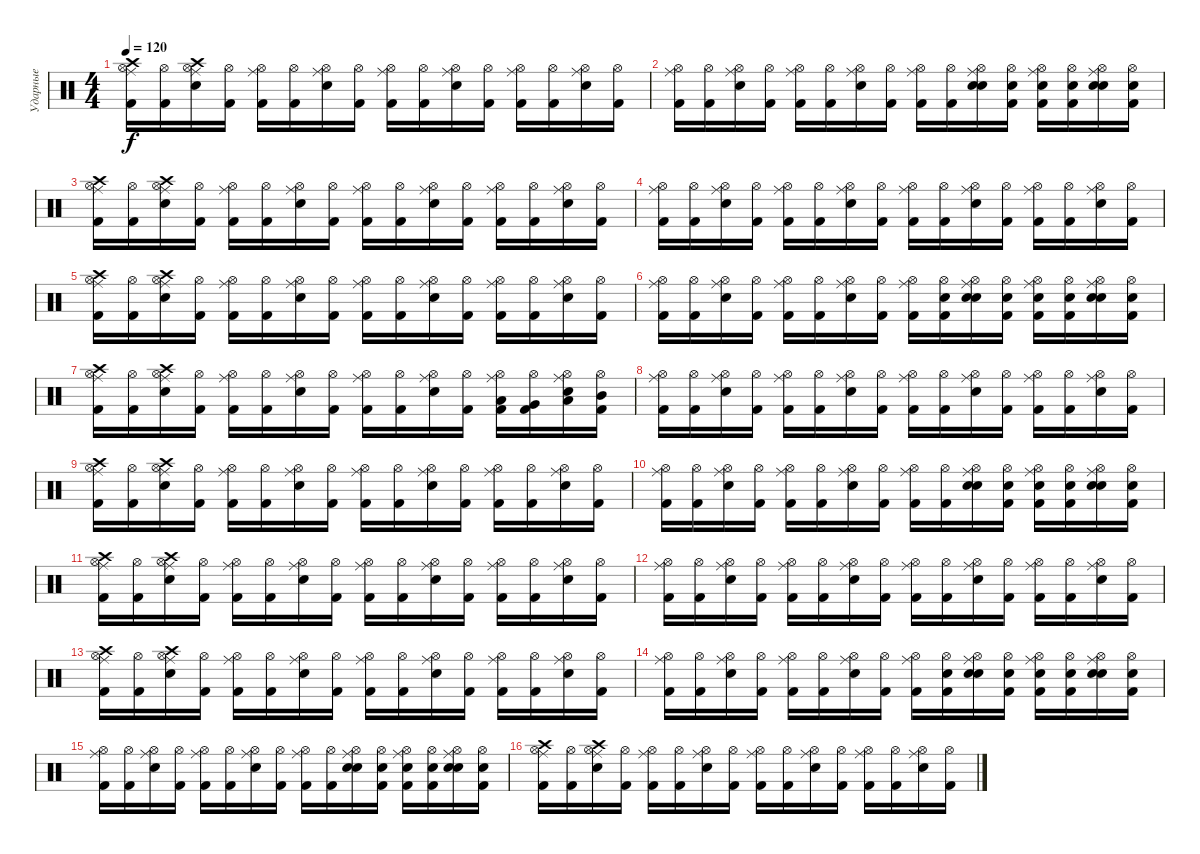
\track ("Ударные" "Ударные") {instrument percussion}
\staff {score}
\articulation defaults
\ts (4 4)
\tempo 120
\clef neutral
\ks c
("Hi-Hat (open)" "Ride (middle)" "Kick (hit) 2" "Crash high (hit)").16{dy f} ("Hi-Hat (open)" "Kick (hit) 2").16 ("Hi-Hat (open)" "Ride (middle)" "Snare (hit) 2" "Crash high (hit)").16 ("Hi-Hat (open)" "Kick (hit) 2").16 ("Hi-Hat (open)" "Ride (middle)" "Kick (hit) 2").16 ("Hi-Hat (open)" "Kick (hit) 2").16 ("Hi-Hat (open)" "Ride (middle)" "Snare (hit) 2").16 ("Hi-Hat (open)" "Kick (hit) 2").16 ("Hi-Hat (open)" "Ride (middle)" "Kick (hit) 2").16 ("Hi-Hat (open)" "Kick (hit) 2").16 ("Hi-Hat (open)" "Ride (middle)" "Snare (hit) 2").16 ("Hi-Hat (open)" "Kick (hit) 2").16 ("Hi-Hat (open)" "Ride (middle)" "Kick (hit) 2").16 ("Hi-Hat (open)" "Kick (hit) 2").16 ("Hi-Hat (open)" "Ride (middle)" "Snare (hit) 2").16 ("Hi-Hat (open)" "Kick (hit) 2").16 |
("Hi-Hat (open)" "Ride (middle)" "Kick (hit) 2").16 ("Hi-Hat (open)" "Kick (hit) 2").16 ("Hi-Hat (open)" "Ride (middle)" "Snare (hit) 2").16 ("Hi-Hat (open)" "Kick (hit) 2").16 ("Hi-Hat (open)" "Ride (middle)" "Kick (hit) 2").16 ("Hi-Hat (open)" "Kick (hit) 2").16 ("Hi-Hat (open)" "Ride (middle)" "Snare (hit) 2").16 ("Hi-Hat (open)" "Kick (hit) 2").16 ("Hi-Hat (open)" "Ride (middle)" "Kick (hit) 2").16 ("Hi-Hat (open)" "Kick (hit) 2").16 ("Hi-Hat (open)" "Ride (middle)" "Snare (hit) 2" "Electric Snare (hit)").16 ("Hi-Hat (open)" "Kick (hit) 2" "Electric Snare (hit)").16 ("Hi-Hat (open)" "Ride (middle)" "Kick (hit) 2" "Electric Snare (hit)").16 ("Hi-Hat (open)" "Kick (hit) 2" "Electric Snare (hit)").16 ("Hi-Hat (open)" "Ride (middle)" "Snare (hit) 2" "Electric Snare (hit)").16 ("Hi-Hat (open)" "Kick (hit) 2" "Electric Snare (hit)").16 |
("Hi-Hat (open)" "Ride (middle)" "Kick (hit) 2" "Crash high (hit)").16 ("Hi-Hat (open)" "Kick (hit) 2").16 ("Hi-Hat (open)" "Ride (middle)" "Snare (hit) 2" "Crash high (hit)").16 ("Hi-Hat (open)" "Kick (hit) 2").16 ("Hi-Hat (open)" "Ride (middle)" "Kick (hit) 2").16 ("Hi-Hat (open)" "Kick (hit) 2").16 ("Hi-Hat (open)" "Ride (middle)" "Snare (hit) 2").16 ("Hi-Hat (open)" "Kick (hit) 2").16 ("Hi-Hat (open)" "Ride (middle)" "Kick (hit) 2").16 ("Hi-Hat (open)" "Kick (hit) 2").16 ("Hi-Hat (open)" "Ride (middle)" "Snare (hit) 2").16 ("Hi-Hat (open)" "Kick (hit) 2").16 ("Hi-Hat (open)" "Ride (middle)" "Kick (hit) 2").16 ("Hi-Hat (open)" "Kick (hit) 2").16 ("Hi-Hat (open)" "Ride (middle)" "Snare (hit) 2").16 ("Hi-Hat (open)" "Kick (hit) 2").16 |
("Hi-Hat (open)" "Ride (middle)" "Kick (hit) 2").16 ("Hi-Hat (open)" "Kick (hit) 2").16 ("Hi-Hat (open)" "Ride (middle)" "Snare (hit) 2").16 ("Hi-Hat (open)" "Kick (hit) 2").16 ("Hi-Hat (open)" "Ride (middle)" "Kick (hit) 2").16 ("Hi-Hat (open)" "Kick (hit) 2").16 ("Hi-Hat (open)" "Ride (middle)" "Snare (hit) 2").16 ("Hi-Hat (open)" "Kick (hit) 2").16 ("Hi-Hat (open)" "Ride (middle)" "Kick (hit) 2").16 ("Hi-Hat (open)" "Kick (hit) 2").16 ("Hi-Hat (open)" "Ride (middle)" "Snare (hit) 2").16 ("Hi-Hat (open)" "Kick (hit) 2").16 ("Hi-Hat (open)" "Ride (middle)" "Kick (hit) 2").16 ("Hi-Hat (open)" "Kick (hit) 2").16 ("Hi-Hat (open)" "Ride (middle)" "Snare (hit) 2").16 ("Hi-Hat (open)" "Kick (hit) 2").16 |
("Hi-Hat (open)" "Ride (middle)" "Kick (hit) 2" "Crash high (hit)").16 ("Hi-Hat (open)" "Kick (hit) 2").16 ("Hi-Hat (open)" "Ride (middle)" "Snare (hit) 2" "Crash high (hit)").16 ("Hi-Hat (open)" "Kick (hit) 2").16 ("Hi-Hat (open)" "Ride (middle)" "Kick (hit) 2").16 ("Hi-Hat (open)" "Kick (hit) 2").16 ("Hi-Hat (open)" "Ride (middle)" "Snare (hit) 2").16 ("Hi-Hat (open)" "Kick (hit) 2").16 ("Hi-Hat (open)" "Ride (middle)" "Kick (hit) 2").16 ("Hi-Hat (open)" "Kick (hit) 2").16 ("Hi-Hat (open)" "Ride (middle)" "Snare (hit) 2").16 ("Hi-Hat (open)" "Kick (hit) 2").16 ("Hi-Hat (open)" "Ride (middle)" "Kick (hit) 2").16 ("Hi-Hat (open)" "Kick (hit) 2").16 ("Hi-Hat (open)" "Ride (middle)" "Snare (hit) 2").16 ("Hi-Hat (open)" "Kick (hit) 2").16 |
("Hi-Hat (open)" "Ride (middle)" "Kick (hit) 2").16 ("Hi-Hat (open)" "Kick (hit) 2").16 ("Hi-Hat (open)" "Ride (middle)" "Snare (hit) 2").16 ("Hi-Hat (open)" "Kick (hit) 2").16 ("Hi-Hat (open)" "Ride (middle)" "Kick (hit) 2").16 ("Hi-Hat (open)" "Kick (hit) 2").16 ("Hi-Hat (open)" "Ride (middle)" "Snare (hit) 2").16 ("Hi-Hat (open)" "Kick (hit) 2").16 ("Hi-Hat (open)" "Ride (middle)" "Kick (hit) 2").16 ("Hi-Hat (open)" "Kick (hit) 2" "Electric Snare (hit)").16 ("Hi-Hat (open)" "Ride (middle)" "Snare (hit) 2" "Electric Snare (hit)").16 ("Hi-Hat (open)" "Kick (hit) 2" "Electric Snare (hit)").16 ("Hi-Hat (open)" "Ride (middle)" "Kick (hit) 2" "Electric Snare (hit)").16 ("Hi-Hat (open)" "Kick (hit) 2" "Electric Snare (hit)").16 ("Hi-Hat (open)" "Ride (middle)" "Snare (hit) 2" "Electric Snare (hit)").16 ("Hi-Hat (open)" "Kick (hit) 2" "Electric Snare (hit)").16 |
("Hi-Hat (open)" "Ride (middle)" "Kick (hit) 2" "Crash high (hit)").16 ("Hi-Hat (open)" "Kick (hit) 2").16 ("Hi-Hat (open)" "Ride (middle)" "Snare (hit) 2" "Crash high (hit)").16 ("Hi-Hat (open)" "Kick (hit) 2").16 ("Hi-Hat (open)" "Ride (middle)" "Kick (hit) 2").16 ("Hi-Hat (open)" "Kick (hit) 2").16 ("Hi-Hat (open)" "Ride (middle)" "Snare (hit) 2").16 ("Hi-Hat (open)" "Kick (hit) 2").16 ("Hi-Hat (open)" "Ride (middle)" "Kick (hit) 2").16 ("Hi-Hat (open)" "Kick (hit) 2").16 ("Hi-Hat (open)" "Ride (middle)" "Snare (hit) 2").16 ("Hi-Hat (open)" "Kick (hit) 2").16 ("Hi-Hat (open)" "Ride (middle)" "Kick (hit) 2" "Low Floor Tom (hit)").16 ("Hi-Hat (open)" "Kick (hit) 2" "Very Low Tom (hit)").16 ("Hi-Hat (open)" "Ride (middle)" "Snare (hit) 2" "Low Tom (hit)").16 ("Hi-Hat (open)" "Kick (hit) 2" "Mid Tom (hit)").16 |
("Hi-Hat (open)" "Ride (middle)" "Kick (hit) 2").16 ("Hi-Hat (open)" "Kick (hit) 2").16 ("Hi-Hat (open)" "Ride (middle)" "Snare (hit) 2").16 ("Hi-Hat (open)" "Kick (hit) 2").16 ("Hi-Hat (open)" "Ride (middle)" "Kick (hit) 2").16 ("Hi-Hat (open)" "Kick (hit) 2").16 ("Hi-Hat (open)" "Ride (middle)" "Snare (hit) 2").16 ("Hi-Hat (open)" "Kick (hit) 2").16 ("Hi-Hat (open)" "Ride (middle)" "Kick (hit) 2").16 ("Hi-Hat (open)" "Kick (hit) 2").16 ("Hi-Hat (open)" "Ride (middle)" "Snare (hit) 2").16 ("Hi-Hat (open)" "Kick (hit) 2").16 ("Hi-Hat (open)" "Ride (middle)" "Kick (hit) 2").16 ("Hi-Hat (open)" "Kick (hit) 2").16 ("Hi-Hat (open)" "Ride (middle)" "Snare (hit) 2").16 ("Hi-Hat (open)" "Kick (hit) 2").16 |
("Hi-Hat (open)" "Ride (middle)" "Kick (hit) 2" "Crash high (hit)").16 ("Hi-Hat (open)" "Kick (hit) 2").16 ("Hi-Hat (open)" "Ride (middle)" "Snare (hit) 2" "Crash high (hit)").16 ("Hi-Hat (open)" "Kick (hit) 2").16 ("Hi-Hat (open)" "Ride (middle)" "Kick (hit) 2").16 ("Hi-Hat (open)" "Kick (hit) 2").16 ("Hi-Hat (open)" "Ride (middle)" "Snare (hit) 2").16 ("Hi-Hat (open)" "Kick (hit) 2").16 ("Hi-Hat (open)" "Ride (middle)" "Kick (hit) 2").16 ("Hi-Hat (open)" "Kick (hit) 2").16 ("Hi-Hat (open)" "Ride (middle)" "Snare (hit) 2").16 ("Hi-Hat (open)" "Kick (hit) 2").16 ("Hi-Hat (open)" "Ride (middle)" "Kick (hit) 2").16 ("Hi-Hat (open)" "Kick (hit) 2").16 ("Hi-Hat (open)" "Ride (middle)" "Snare (hit) 2").16 ("Hi-Hat (open)" "Kick (hit) 2").16 |
("Hi-Hat (open)" "Ride (middle)" "Kick (hit) 2").16 ("Hi-Hat (open)" "Kick (hit) 2").16 ("Hi-Hat (open)" "Ride (middle)" "Snare (hit) 2").16 ("Hi-Hat (open)" "Kick (hit) 2").16 ("Hi-Hat (open)" "Ride (middle)" "Kick (hit) 2").16 ("Hi-Hat (open)" "Kick (hit) 2").16 ("Hi-Hat (open)" "Ride (middle)" "Snare (hit) 2").16 ("Hi-Hat (open)" "Kick (hit) 2").16 ("Hi-Hat (open)" "Ride (middle)" "Kick (hit) 2").16 ("Hi-Hat (open)" "Kick (hit) 2").16 ("Hi-Hat (open)" "Ride (middle)" "Snare (hit) 2" "Electric Snare (hit)").16 ("Hi-Hat (open)" "Kick (hit) 2" "Electric Snare (hit)").16 ("Hi-Hat (open)" "Ride (middle)" "Kick (hit) 2" "Electric Snare (hit)").16 ("Hi-Hat (open)" "Kick (hit) 2" "Electric Snare (hit)").16 ("Hi-Hat (open)" "Ride (middle)" "Snare (hit) 2" "Electric Snare (hit)").16 ("Hi-Hat (open)" "Kick (hit) 2" "Electric Snare (hit)").16 |
("Hi-Hat (open)" "Ride (middle)" "Kick (hit) 2" "Crash high (hit)").16 ("Hi-Hat (open)" "Kick (hit) 2").16 ("Hi-Hat (open)" "Ride (middle)" "Snare (hit) 2" "Crash high (hit)").16 ("Hi-Hat (open)" "Kick (hit) 2").16 ("Hi-Hat (open)" "Ride (middle)" "Kick (hit) 2").16 ("Hi-Hat (open)" "Kick (hit) 2").16 ("Hi-Hat (open)" "Ride (middle)" "Snare (hit) 2").16 ("Hi-Hat (open)" "Kick (hit) 2").16 ("Hi-Hat (open)" "Ride (middle)" "Kick (hit) 2").16 ("Hi-Hat (open)" "Kick (hit) 2").16 ("Hi-Hat (open)" "Ride (middle)" "Snare (hit) 2").16 ("Hi-Hat (open)" "Kick (hit) 2").16 ("Hi-Hat (open)" "Ride (middle)" "Kick (hit) 2").16 ("Hi-Hat (open)" "Kick (hit) 2").16 ("Hi-Hat (open)" "Ride (middle)" "Snare (hit) 2").16 ("Hi-Hat (open)" "Kick (hit) 2").16 |
("Hi-Hat (open)" "Ride (middle)" "Kick (hit) 2").16 ("Hi-Hat (open)" "Kick (hit) 2").16 ("Hi-Hat (open)" "Ride (middle)" "Snare (hit) 2").16 ("Hi-Hat (open)" "Kick (hit) 2").16 ("Hi-Hat (open)" "Ride (middle)" "Kick (hit) 2").16 ("Hi-Hat (open)" "Kick (hit) 2").16 ("Hi-Hat (open)" "Ride (middle)" "Snare (hit) 2").16 ("Hi-Hat (open)" "Kick (hit) 2").16 ("Hi-Hat (open)" "Ride (middle)" "Kick (hit) 2").16 ("Hi-Hat (open)" "Kick (hit) 2").16 ("Hi-Hat (open)" "Ride (middle)" "Snare (hit) 2").16 ("Hi-Hat (open)" "Kick (hit) 2").16 ("Hi-Hat (open)" "Ride (middle)" "Kick (hit) 2").16 ("Hi-Hat (open)" "Kick (hit) 2").16 ("Hi-Hat (open)" "Ride (middle)" "Snare (hit) 2").16 ("Hi-Hat (open)" "Kick (hit) 2").16 |
("Hi-Hat (open)" "Ride (middle)" "Kick (hit) 2" "Crash high (hit)").16 ("Hi-Hat (open)" "Kick (hit) 2").16 ("Hi-Hat (open)" "Ride (middle)" "Snare (hit) 2" "Crash high (hit)").16 ("Hi-Hat (open)" "Kick (hit) 2").16 ("Hi-Hat (open)" "Ride (middle)" "Kick (hit) 2").16 ("Hi-Hat (open)" "Kick (hit) 2").16 ("Hi-Hat (open)" "Ride (middle)" "Snare (hit) 2").16 ("Hi-Hat (open)" "Kick (hit) 2").16 ("Hi-Hat (open)" "Ride (middle)" "Kick (hit) 2").16 ("Hi-Hat (open)" "Kick (hit) 2").16 ("Hi-Hat (open)" "Ride (middle)" "Snare (hit) 2").16 ("Hi-Hat (open)" "Kick (hit) 2").16 ("Hi-Hat (open)" "Ride (middle)" "Kick (hit) 2").16 ("Hi-Hat (open)" "Kick (hit) 2").16 ("Hi-Hat (open)" "Ride (middle)" "Snare (hit) 2").16 ("Hi-Hat (open)" "Kick (hit) 2").16 |
("Hi-Hat (open)" "Ride (middle)" "Kick (hit) 2").16 ("Hi-Hat (open)" "Kick (hit) 2").16 ("Hi-Hat (open)" "Ride (middle)" "Snare (hit) 2").16 ("Hi-Hat (open)" "Kick (hit) 2").16 ("Hi-Hat (open)" "Ride (middle)" "Kick (hit) 2").16 ("Hi-Hat (open)" "Kick (hit) 2").16 ("Hi-Hat (open)" "Ride (middle)" "Snare (hit) 2").16 ("Hi-Hat (open)" "Kick (hit) 2").16 ("Hi-Hat (open)" "Ride (middle)" "Kick (hit) 2").16 ("Hi-Hat (open)" "Kick (hit) 2" "Electric Snare (hit)").16 ("Hi-Hat (open)" "Ride (middle)" "Snare (hit) 2" "Electric Snare (hit)").16 ("Hi-Hat (open)" "Kick (hit) 2" "Electric Snare (hit)").16 ("Hi-Hat (open)" "Ride (middle)" "Kick (hit) 2" "Electric Snare (hit)").16 ("Hi-Hat (open)" "Kick (hit) 2" "Electric Snare (hit)").16 ("Hi-Hat (open)" "Ride (middle)" "Snare (hit) 2" "Electric Snare (hit)").16 ("Hi-Hat (open)" "Kick (hit) 2" "Electric Snare (hit)").16 |
("Hi-Hat (open)" "Ride (middle)" "Kick (hit) 2").16 ("Hi-Hat (open)" "Kick (hit) 2").16 ("Hi-Hat (open)" "Ride (middle)" "Snare (hit) 2").16 ("Hi-Hat (open)" "Kick (hit) 2").16 ("Hi-Hat (open)" "Ride (middle)" "Kick (hit) 2").16 ("Hi-Hat (open)" "Kick (hit) 2").16 ("Hi-Hat (open)" "Ride (middle)" "Snare (hit) 2").16 ("Hi-Hat (open)" "Kick (hit) 2").16 ("Hi-Hat (open)" "Ride (middle)" "Kick (hit) 2").16 ("Hi-Hat (open)" "Kick (hit) 2").16 ("Hi-Hat (open)" "Ride (middle)" "Snare (hit) 2" "Electric Snare (hit)").16 ("Hi-Hat (open)" "Kick (hit) 2" "Electric Snare (hit)").16 ("Hi-Hat (open)" "Ride (middle)" "Kick (hit) 2" "Electric Snare (hit)").16 ("Hi-Hat (open)" "Kick (hit) 2" "Electric Snare (hit)").16 ("Hi-Hat (open)" "Ride (middle)" "Snare (hit) 2" "Electric Snare (hit)").16 ("Hi-Hat (open)" "Kick (hit) 2" "Electric Snare (hit)").16 |
("Hi-Hat (open)" "Ride (middle)" "Kick (hit) 2" "Crash high (hit)").16 ("Hi-Hat (open)" "Kick (hit) 2").16 ("Hi-Hat (open)" "Ride (middle)" "Snare (hit) 2" "Crash high (hit)").16 ("Hi-Hat (open)" "Kick (hit) 2").16 ("Hi-Hat (open)" "Ride (middle)" "Kick (hit) 2").16 ("Hi-Hat (open)" "Kick (hit) 2").16 ("Hi-Hat (open)" "Ride (middle)" "Snare (hit) 2").16 ("Hi-Hat (open)" "Kick (hit) 2").16 ("Hi-Hat (open)" "Ride (middle)" "Kick (hit) 2").16 ("Hi-Hat (open)" "Kick (hit) 2").16 ("Hi-Hat (open)" "Ride (middle)" "Snare (hit) 2").16 ("Hi-Hat (open)" "Kick (hit) 2").16 ("Hi-Hat (open)" "Ride (middle)" "Kick (hit) 2").16 ("Hi-Hat (open)" "Kick (hit) 2").16 ("Hi-Hat (open)" "Ride (middle)" "Snare (hit) 2").16 ("Hi-Hat (open)" "Kick (hit) 2").16
